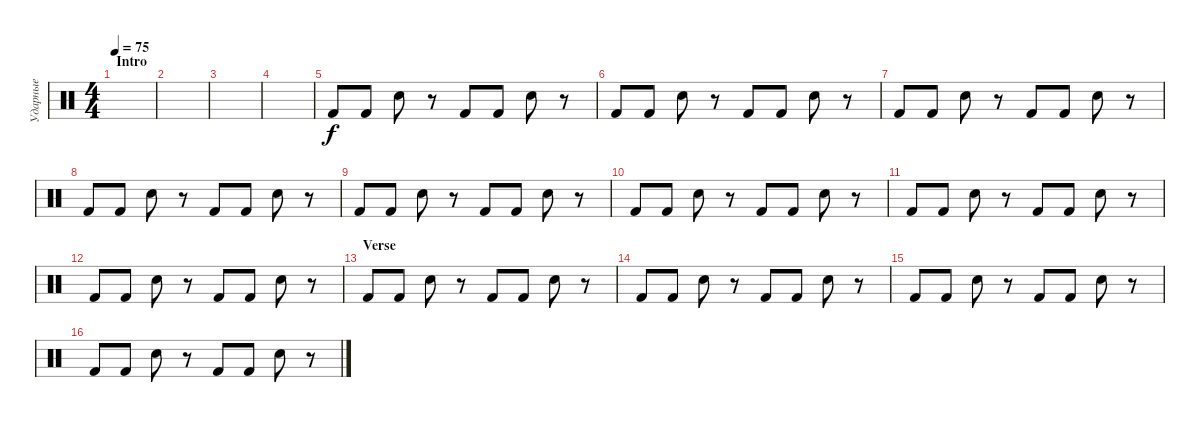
\track ("Ударные" "Ударные") {instrument percussion}
\staff {score}
\articulation defaults
\ts (4 4)
\section ("" "Intro")
\tempo 75
\clef neutral
\ks c
|
|
|
|
"Kick (hit) 2".8 "Kick (hit) 2".8 "Snare (hit) 2".8 r.8 "Kick (hit) 2".8 "Kick (hit) 2".8 "Snare (hit) 2".8 r.8 |
"Kick (hit) 2".8 "Kick (hit) 2".8 "Snare (hit) 2".8 r.8 "Kick (hit) 2".8 "Kick (hit) 2".8 "Snare (hit) 2".8 r.8 |
"Kick (hit) 2".8 "Kick (hit) 2".8 "Snare (hit) 2".8 r.8 "Kick (hit) 2".8 "Kick (hit) 2".8 "Snare (hit) 2".8 r.8 |
"Kick (hit) 2".8 "Kick (hit) 2".8 "Snare (hit) 2".8 r.8 "Kick (hit) 2".8 "Kick (hit) 2".8 "Snare (hit) 2".8 r.8 |
"Kick (hit) 2".8 "Kick (hit) 2".8 "Snare (hit) 2".8 r.8 "Kick (hit) 2".8 "Kick (hit) 2".8 "Snare (hit) 2".8 r.8 |
"Kick (hit) 2".8 "Kick (hit) 2".8 "Snare (hit) 2".8 r.8 "Kick (hit) 2".8 "Kick (hit) 2".8 "Snare (hit) 2".8 r.8 |
"Kick (hit) 2".8 "Kick (hit) 2".8 "Snare (hit) 2".8 r.8 "Kick (hit) 2".8 "Kick (hit) 2".8 "Snare (hit) 2".8 r.8 |
"Kick (hit) 2".8 "Kick (hit) 2".8 "Snare (hit) 2".8 r.8 "Kick (hit) 2".8 "Kick (hit) 2".8 "Snare (hit) 2".8 r.8 |
\section ("" "Verse")
"Kick (hit) 2".8 "Kick (hit) 2".8 "Snare (hit) 2".8 r.8 "Kick (hit) 2".8 "Kick (hit) 2".8 "Snare (hit) 2".8 r.8 |
"Kick (hit) 2".8 "Kick (hit) 2".8 "Snare (hit) 2".8 r.8 "Kick (hit) 2".8 "Kick (hit) 2".8 "Snare (hit) 2".8 r.8 |
"Kick (hit) 2".8 "Kick (hit) 2".8 "Snare (hit) 2".8 r.8 "Kick (hit) 2".8 "Kick (hit) 2".8 "Snare (hit) 2".8 r.8 |
"Kick (hit) 2".8 "Kick (hit) 2".8 "Snare (hit) 2".8 r.8 "Kick (hit) 2".8 "Kick (hit) 2".8 "Snare (hit) 2".8 r.8
